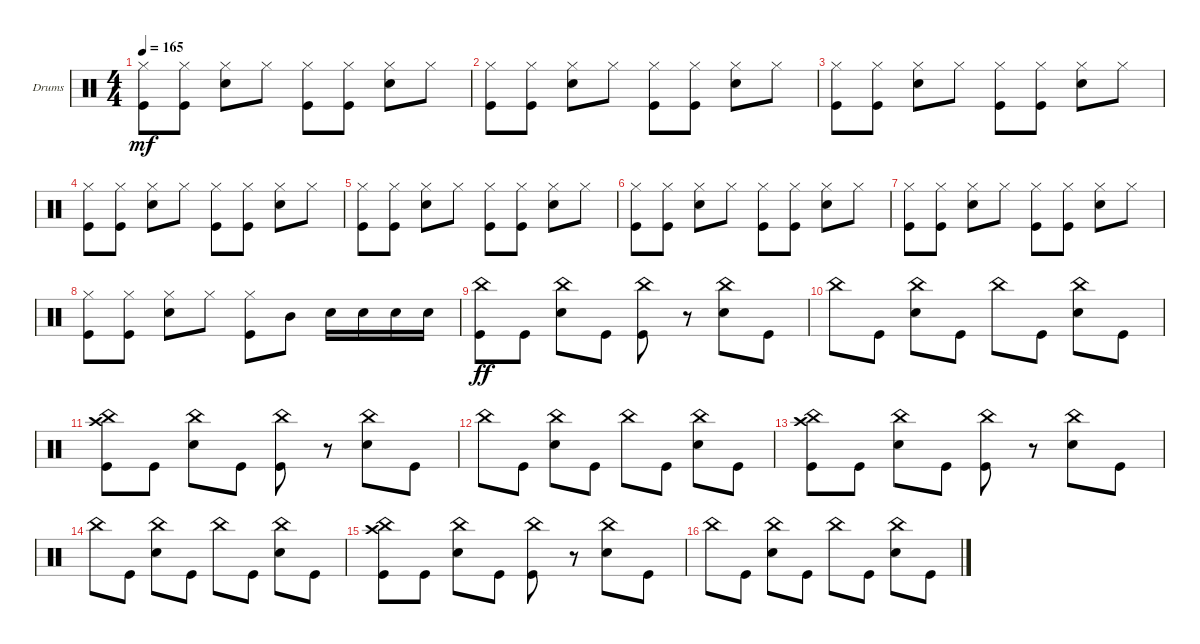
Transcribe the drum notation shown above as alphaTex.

\defaultSystemsLayout 4
\bracketExtendMode groupsimilarinstruments
\firstSystemTrackNameOrientation horizontal
\otherSystemsTrackNameOrientation horizontal
\track ("Drumkit" "Drums") {instrument percussion}
\staff {score}
\articulation defaults
\ts (4 4)
\tempo 165
\clef neutral
\ks c
("Kick (hit)" "Hi-Hat (closed)").8{dy mf} ("Kick (hit)" "Hi-Hat (closed)").8 ("Snare (hit) 2" "Hi-Hat (closed)").8 "Hi-Hat (closed)".8 ("Kick (hit)" "Hi-Hat (closed)").8 ("Kick (hit)" "Hi-Hat (closed)").8 ("Snare (hit) 2" "Hi-Hat (closed)").8 "Hi-Hat (closed)".8 |
("Kick (hit)" "Hi-Hat (closed)").8 ("Kick (hit)" "Hi-Hat (closed)").8 ("Snare (hit) 2" "Hi-Hat (closed)").8 "Hi-Hat (closed)".8 ("Kick (hit)" "Hi-Hat (closed)").8 ("Kick (hit)" "Hi-Hat (closed)").8 ("Snare (hit) 2" "Hi-Hat (closed)").8 "Hi-Hat (closed)".8 |
("Kick (hit)" "Hi-Hat (closed)").8 ("Kick (hit)" "Hi-Hat (closed)").8 ("Snare (hit) 2" "Hi-Hat (closed)").8 "Hi-Hat (closed)".8 ("Kick (hit)" "Hi-Hat (closed)").8 ("Kick (hit)" "Hi-Hat (closed)").8 ("Snare (hit) 2" "Hi-Hat (closed)").8 "Hi-Hat (closed)".8 |
("Kick (hit)" "Hi-Hat (closed)").8 ("Kick (hit)" "Hi-Hat (closed)").8 ("Snare (hit) 2" "Hi-Hat (closed)").8 "Hi-Hat (closed)".8 ("Kick (hit)" "Hi-Hat (closed)").8 ("Kick (hit)" "Hi-Hat (closed)").8 ("Snare (hit) 2" "Hi-Hat (closed)").8 "Hi-Hat (closed)".8 |
("Kick (hit)" "Hi-Hat (closed)").8 ("Kick (hit)" "Hi-Hat (closed)").8 ("Snare (hit) 2" "Hi-Hat (closed)").8 "Hi-Hat (closed)".8 ("Kick (hit)" "Hi-Hat (closed)").8 ("Kick (hit)" "Hi-Hat (closed)").8 ("Snare (hit) 2" "Hi-Hat (closed)").8 "Hi-Hat (closed)".8 |
("Kick (hit)" "Hi-Hat (closed)").8 ("Kick (hit)" "Hi-Hat (closed)").8 ("Snare (hit) 2" "Hi-Hat (closed)").8 "Hi-Hat (closed)".8 ("Kick (hit)" "Hi-Hat (closed)").8 ("Kick (hit)" "Hi-Hat (closed)").8 ("Snare (hit) 2" "Hi-Hat (closed)").8 "Hi-Hat (closed)".8 |
("Kick (hit)" "Hi-Hat (closed)").8 ("Kick (hit)" "Hi-Hat (closed)").8 ("Snare (hit) 2" "Hi-Hat (closed)").8 "Hi-Hat (closed)".8 ("Kick (hit)" "Hi-Hat (closed)").8 ("Kick (hit)" "Hi-Hat (closed)").8 ("Snare (hit) 2" "Hi-Hat (closed)").8 "Hi-Hat (closed)".8 |
("Kick (hit)" "Hi-Hat (closed)").8 ("Kick (hit)" "Hi-Hat (closed)").8 ("Snare (hit) 2" "Hi-Hat (closed)").8 "Hi-Hat (closed)".8 ("Kick (hit)" "Hi-Hat (closed)").8 "Mid Tom (hit)".8 "Snare (hit) 2".16 "Snare (hit) 2".16 "Snare (hit) 2".16 "Snare (hit) 2".16 |
("Kick (hit)" "China (hit)").8{dy ff} "Kick (hit)".8 ("Snare (hit) 2" "China (hit)").8 "Kick (hit)".8 ("Kick (hit)" "China (hit)").8 r.8 ("Snare (hit) 2" "China (hit)").8 "Kick (hit)".8 |
"China (hit)".8 "Kick (hit)".8 ("Snare (hit) 2" "China (hit)").8 "Kick (hit)".8 "China (hit)".8 "Kick (hit)".8 ("Snare (hit) 2" "China (hit)").8 "Kick (hit)".8 |
("Kick (hit)" "China (hit)" "Crash high (hit)").8 "Kick (hit)".8 ("Snare (hit) 2" "China (hit)").8 "Kick (hit)".8 ("Kick (hit)" "China (hit)").8 r.8 ("Snare (hit) 2" "China (hit)").8 "Kick (hit)".8 |
"China (hit)".8 "Kick (hit)".8 ("Snare (hit) 2" "China (hit)").8 "Kick (hit)".8 "China (hit)".8 "Kick (hit)".8 ("Snare (hit) 2" "China (hit)").8 "Kick (hit)".8 |
("Kick (hit)" "China (hit)" "Crash high (hit)").8 "Kick (hit)".8 ("Snare (hit) 2" "China (hit)").8 "Kick (hit)".8 ("Kick (hit)" "China (hit)").8 r.8 ("Snare (hit) 2" "China (hit)").8 "Kick (hit)".8 |
"China (hit)".8 "Kick (hit)".8 ("Snare (hit) 2" "China (hit)").8 "Kick (hit)".8 "China (hit)".8 "Kick (hit)".8 ("Snare (hit) 2" "China (hit)").8 "Kick (hit)".8 |
("Kick (hit)" "China (hit)" "Crash high (hit)").8 "Kick (hit)".8 ("Snare (hit) 2" "China (hit)").8 "Kick (hit)".8 ("Kick (hit)" "China (hit)").8 r.8 ("Snare (hit) 2" "China (hit)").8 "Kick (hit)".8 |
"China (hit)".8 "Kick (hit)".8 ("Snare (hit) 2" "China (hit)").8 "Kick (hit)".8 "China (hit)".8 "Kick (hit)".8 ("Snare (hit) 2" "China (hit)").8 "Kick (hit)".8
